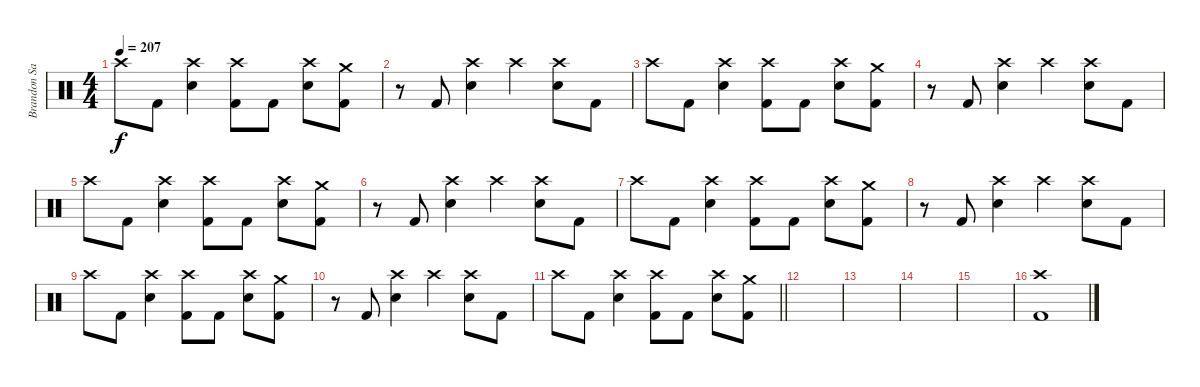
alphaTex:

\track ("Brandon Saller" "Brandon Sa") {instrument percussion}
\staff {score}
\articulation defaults
\ts (4 4)
\tempo 207
\clef neutral
\ks c "Crash high (hit)".8{dy f} "Kick (hit) 2".8
("Crash high (hit)" "Electric Snare (hit)").4 ("Crash high (hit)" "Kick (hit) 2").8 "Kick (hit) 2".8 ("Crash high (hit)" "Electric Snare (hit)").8 ("Crash medium (hit)" "Kick (hit) 2").8 |
r.8 "Kick (hit) 2".8 ("Crash high (hit)" "Electric Snare (hit)").4 "Crash high (hit)".4 ("Crash high (hit)" "Electric Snare (hit)").8 "Kick (hit) 2".8 |
"Crash high (hit)".8 "Kick (hit) 2".8 ("Crash high (hit)" "Electric Snare (hit)").4 ("Crash high (hit)" "Kick (hit) 2").8 "Kick (hit) 2".8 ("Crash high (hit)" "Electric Snare (hit)").8 ("Crash medium (hit)" "Kick (hit) 2").8 |
r.8 "Kick (hit) 2".8 ("Crash high (hit)" "Electric Snare (hit)").4 "Crash high (hit)".4 ("Crash high (hit)" "Electric Snare (hit)").8 "Kick (hit) 2".8 |
"Crash high (hit)".8 "Kick (hit) 2".8 ("Crash high (hit)" "Electric Snare (hit)").4 ("Crash high (hit)" "Kick (hit) 2").8 "Kick (hit) 2".8 ("Crash high (hit)" "Electric Snare (hit)").8 ("Crash medium (hit)" "Kick (hit) 2").8 |
r.8 "Kick (hit) 2".8 ("Crash high (hit)" "Electric Snare (hit)").4 "Crash high (hit)".4 ("Crash high (hit)" "Electric Snare (hit)").8 "Kick (hit) 2".8 |
"Crash high (hit)".8 "Kick (hit) 2".8 ("Crash high (hit)" "Electric Snare (hit)").4 ("Crash high (hit)" "Kick (hit) 2").8 "Kick (hit) 2".8 ("Crash high (hit)" "Electric Snare (hit)").8 ("Crash medium (hit)" "Kick (hit) 2").8 |
r.8 "Kick (hit) 2".8 ("Crash high (hit)" "Electric Snare (hit)").4 "Crash high (hit)".4 ("Crash high (hit)" "Electric Snare (hit)").8 "Kick (hit) 2".8 |
"Crash high (hit)".8 "Kick (hit) 2".8 ("Crash high (hit)" "Electric Snare (hit)").4 ("Crash high (hit)" "Kick (hit) 2").8 "Kick (hit) 2".8 ("Crash high (hit)" "Electric Snare (hit)").8 ("Crash medium (hit)" "Kick (hit) 2").8 |
r.8 "Kick (hit) 2".8 ("Crash high (hit)" "Electric Snare (hit)").4 "Crash high (hit)".4 ("Crash high (hit)" "Electric Snare (hit)").8 "Kick (hit) 2".8 |
\barLineRight lightlight "Crash high (hit)".8 "Kick (hit) 2".8
("Crash high (hit)" "Electric Snare (hit)").4 ("Crash high (hit)" "Kick (hit) 2").8 "Kick (hit) 2".8 ("Crash high (hit)" "Electric Snare (hit)").8 ("Crash medium (hit)" "Kick (hit) 2").8 |
|
|
|
|
("Crash high (hit)" "Kick (hit) 2").1
